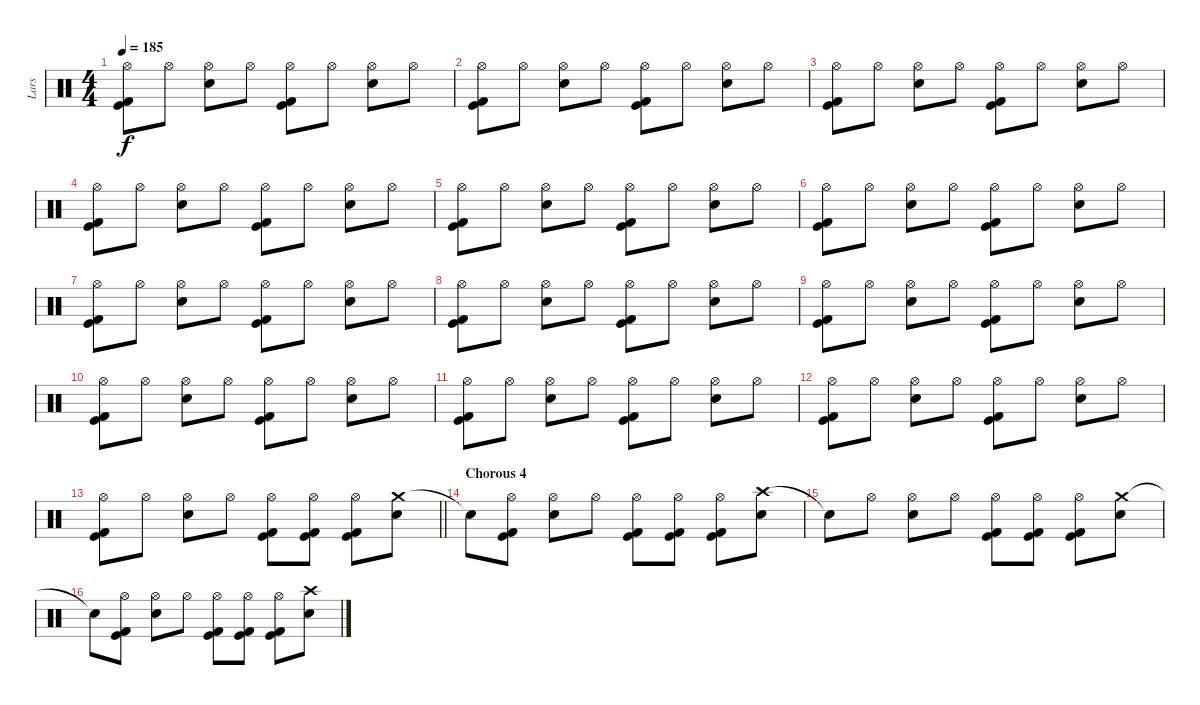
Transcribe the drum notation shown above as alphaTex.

\track ("Lars" "Lars") {instrument percussion}
\staff {score}
\articulation defaults
\ts (4 4)
\tempo 185
\clef neutral
\ks c
("Hi-Hat (open)" "Kick (hit)" "Kick (hit) 2").8{dy f} "Hi-Hat (open)".8 ("Hi-Hat (open)" "Electric Snare (hit)").8 "Hi-Hat (open)".8 ("Hi-Hat (open)" "Kick (hit)" "Kick (hit) 2").8 "Hi-Hat (open)".8 ("Hi-Hat (open)" "Electric Snare (hit)").8 "Hi-Hat (open)".8 |
("Hi-Hat (open)" "Kick (hit)" "Kick (hit) 2").8 "Hi-Hat (open)".8 ("Hi-Hat (open)" "Electric Snare (hit)").8 "Hi-Hat (open)".8 ("Hi-Hat (open)" "Kick (hit)" "Kick (hit) 2").8 "Hi-Hat (open)".8 ("Hi-Hat (open)" "Electric Snare (hit)").8 "Hi-Hat (open)".8 |
("Hi-Hat (open)" "Kick (hit)" "Kick (hit) 2").8 "Hi-Hat (open)".8 ("Hi-Hat (open)" "Electric Snare (hit)").8 "Hi-Hat (open)".8 ("Hi-Hat (open)" "Kick (hit)" "Kick (hit) 2").8 "Hi-Hat (open)".8 ("Hi-Hat (open)" "Electric Snare (hit)").8 "Hi-Hat (open)".8 |
("Hi-Hat (open)" "Kick (hit)" "Kick (hit) 2").8 "Hi-Hat (open)".8 ("Hi-Hat (open)" "Electric Snare (hit)").8 "Hi-Hat (open)".8 ("Hi-Hat (open)" "Kick (hit)" "Kick (hit) 2").8 "Hi-Hat (open)".8 ("Hi-Hat (open)" "Electric Snare (hit)").8 "Hi-Hat (open)".8 |
("Hi-Hat (open)" "Kick (hit)" "Kick (hit) 2").8 "Hi-Hat (open)".8 ("Hi-Hat (open)" "Electric Snare (hit)").8 "Hi-Hat (open)".8 ("Hi-Hat (open)" "Kick (hit)" "Kick (hit) 2").8 "Hi-Hat (open)".8 ("Hi-Hat (open)" "Electric Snare (hit)").8 "Hi-Hat (open)".8 |
("Hi-Hat (open)" "Kick (hit)" "Kick (hit) 2").8 "Hi-Hat (open)".8 ("Hi-Hat (open)" "Electric Snare (hit)").8 "Hi-Hat (open)".8 ("Hi-Hat (open)" "Kick (hit)" "Kick (hit) 2").8 "Hi-Hat (open)".8 ("Hi-Hat (open)" "Electric Snare (hit)").8 "Hi-Hat (open)".8 |
("Hi-Hat (open)" "Kick (hit)" "Kick (hit) 2").8 "Hi-Hat (open)".8 ("Hi-Hat (open)" "Electric Snare (hit)").8 "Hi-Hat (open)".8 ("Hi-Hat (open)" "Kick (hit)" "Kick (hit) 2").8 "Hi-Hat (open)".8 ("Hi-Hat (open)" "Electric Snare (hit)").8 "Hi-Hat (open)".8 |
("Hi-Hat (open)" "Kick (hit)" "Kick (hit) 2").8 "Hi-Hat (open)".8 ("Hi-Hat (open)" "Electric Snare (hit)").8 "Hi-Hat (open)".8 ("Hi-Hat (open)" "Kick (hit)" "Kick (hit) 2").8 "Hi-Hat (open)".8 ("Hi-Hat (open)" "Electric Snare (hit)").8 "Hi-Hat (open)".8 |
("Hi-Hat (open)" "Kick (hit)" "Kick (hit) 2").8 "Hi-Hat (open)".8 ("Hi-Hat (open)" "Electric Snare (hit)").8 "Hi-Hat (open)".8 ("Hi-Hat (open)" "Kick (hit)" "Kick (hit) 2").8 "Hi-Hat (open)".8 ("Hi-Hat (open)" "Electric Snare (hit)").8 "Hi-Hat (open)".8 |
("Hi-Hat (open)" "Kick (hit)" "Kick (hit) 2").8 "Hi-Hat (open)".8 ("Hi-Hat (open)" "Electric Snare (hit)").8 "Hi-Hat (open)".8 ("Hi-Hat (open)" "Kick (hit)" "Kick (hit) 2").8 "Hi-Hat (open)".8 ("Hi-Hat (open)" "Electric Snare (hit)").8 "Hi-Hat (open)".8 |
("Hi-Hat (open)" "Kick (hit)" "Kick (hit) 2").8 "Hi-Hat (open)".8 ("Hi-Hat (open)" "Electric Snare (hit)").8 "Hi-Hat (open)".8 ("Hi-Hat (open)" "Kick (hit)" "Kick (hit) 2").8 "Hi-Hat (open)".8 ("Hi-Hat (open)" "Electric Snare (hit)").8 "Hi-Hat (open)".8 |
("Hi-Hat (open)" "Kick (hit)" "Kick (hit) 2").8 "Hi-Hat (open)".8 ("Hi-Hat (open)" "Electric Snare (hit)").8 "Hi-Hat (open)".8 ("Hi-Hat (open)" "Kick (hit)" "Kick (hit) 2").8 "Hi-Hat (open)".8 ("Hi-Hat (open)" "Electric Snare (hit)").8 "Hi-Hat (open)".8 |
\barLineRight lightlight
("Hi-Hat (open)" "Kick (hit)" "Kick (hit) 2").8 "Hi-Hat (open)".8 ("Hi-Hat (open)" "Electric Snare (hit)").8 "Hi-Hat (open)".8 ("Hi-Hat (open)" "Kick (hit)" "Kick (hit) 2").8 ("Hi-Hat (open)" "Kick (hit)" "Kick (hit) 2").8 ("Hi-Hat (open)" "Kick (hit)" "Kick (hit) 2").8 ("Crash medium (hit)" "Electric Snare (hit)").8 |
\section ("" "Chorous 4")
"Snare (hit)"{t}.8 ("Hi-Hat (open)" "Kick (hit)" "Kick (hit) 2").8 ("Hi-Hat (open)" "Electric Snare (hit)").8 "Hi-Hat (open)".8 ("Hi-Hat (open)" "Kick (hit)" "Kick (hit) 2").8 ("Hi-Hat (open)" "Kick (hit)" "Kick (hit) 2").8 ("Hi-Hat (open)" "Kick (hit)" "Kick (hit) 2").8 ("Crash high (hit)" "Electric Snare (hit)").8 |
"Snare (hit)"{t}.8 "Hi-Hat (open)".8 ("Hi-Hat (open)" "Electric Snare (hit)").8 "Hi-Hat (open)".8 ("Hi-Hat (open)" "Kick (hit)" "Kick (hit) 2").8 ("Hi-Hat (open)" "Kick (hit)" "Kick (hit) 2").8 ("Hi-Hat (open)" "Kick (hit)" "Kick (hit) 2").8 ("Crash medium (hit)" "Electric Snare (hit)").8 |
"Snare (hit)"{t}.8 ("Hi-Hat (open)" "Kick (hit)" "Kick (hit) 2").8 ("Hi-Hat (open)" "Electric Snare (hit)").8 "Hi-Hat (open)".8 ("Hi-Hat (open)" "Kick (hit)" "Kick (hit) 2").8 ("Hi-Hat (open)" "Kick (hit)" "Kick (hit) 2").8 ("Hi-Hat (open)" "Kick (hit)" "Kick (hit) 2").8 ("Crash high (hit)" "Electric Snare (hit)").8
